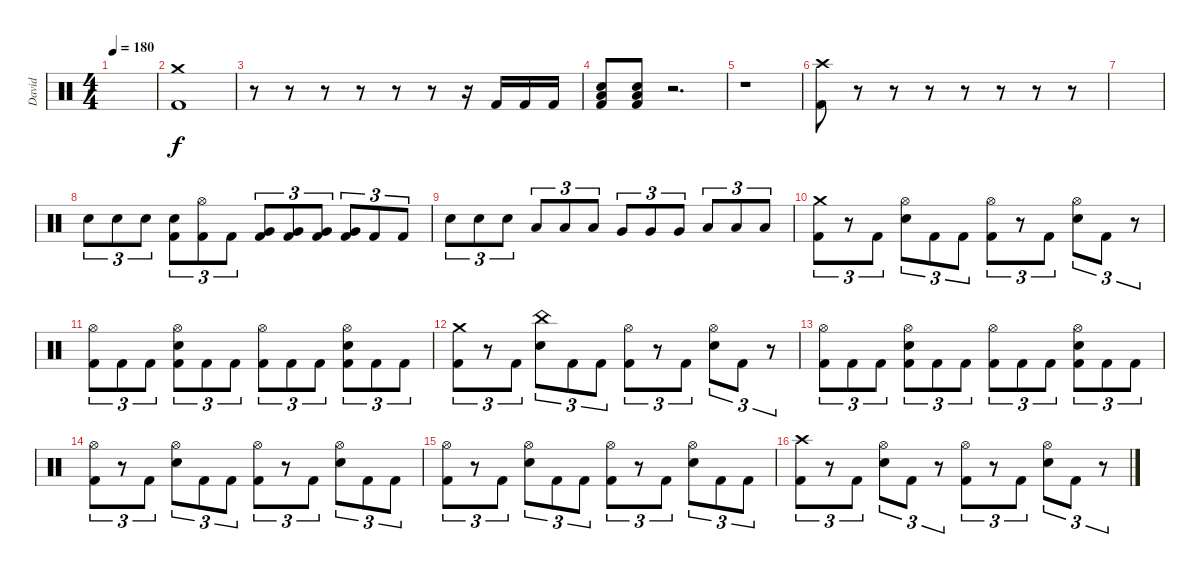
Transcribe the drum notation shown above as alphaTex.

\track ("David" "David") {instrument percussion}
\staff {score}
\articulation defaults
\ts (4 4)
\tempo 180
\clef neutral
\ks c
|
("Crash medium (hit)" "Kick (hit) 2").1 |
r.8 r.8 r.8 r.8 r.8 r.8 r.16 "Kick (hit) 2".16 "Kick (hit) 2".16 "Kick (hit) 2".16 |
("Low Floor Tom (hit)" "Electric Snare (hit)" "Kick (hit) 2").8 ("Low Floor Tom (hit)" "Electric Snare (hit)" "Kick (hit) 2").8 r.2{d} |
r.1 |
("Crash high (hit)" "Kick (hit) 2").8 r.8 r.8 r.8 r.8 r.8 r.8 r.8 |
|
"Electric Snare (hit)".8{tu (3 2)} "Electric Snare (hit)".8{tu (3 2)} "Electric Snare (hit)".8{tu (3 2)} ("Electric Snare (hit)" "Kick (hit) 2").8{tu (3 2)} ("Hi-Hat (open)" "Kick (hit) 2").8{tu (3 2)} "Kick (hit) 2".8{tu (3 2)} ("Very Low Tom (hit)" "Kick (hit) 2").8{tu (3 2)} ("Very Low Tom (hit)" "Kick (hit) 2").8{tu (3 2)} ("Very Low Tom (hit)" "Kick (hit) 2").8{tu (3 2)} ("Very Low Tom (hit)" "Kick (hit) 2").8{tu (3 2)} "Kick (hit) 2".8{tu (3 2)} "Kick (hit) 2".8{tu (3 2)} |
"Electric Snare (hit)".8{tu (3 2)} "Electric Snare (hit)".8{tu (3 2)} "Electric Snare (hit)".8{tu (3 2)} "Low Tom (hit)".8{tu (3 2)} "Low Tom (hit)".8{tu (3 2)} "Low Tom (hit)".8{tu (3 2)} "Very Low Tom (hit)".8{tu (3 2)} "Very Low Tom (hit)".8{tu (3 2)} "Very Low Tom (hit)".8{tu (3 2)} "Low Floor Tom (hit)".8{tu (3 2)} "Low Floor Tom (hit)".8{tu (3 2)} "Low Floor Tom (hit)".8{tu (3 2)} |
("Crash medium (hit)" "Kick (hit) 2").8{tu (3 2)} r.8{tu (3 2)} "Kick (hit) 2".8{tu (3 2)} ("Hi-Hat (open)" "Electric Snare (hit)").8{tu (3 2)} "Kick (hit) 2".8{tu (3 2)} "Kick (hit) 2".8{tu (3 2)} ("Hi-Hat (open)" "Kick (hit) 2").8{tu (3 2)} r.8{tu (3 2)} "Kick (hit) 2".8{tu (3 2)} ("Hi-Hat (open)" "Electric Snare (hit)").8{tu (3 2)} "Kick (hit) 2".8{tu (3 2)} r.8{tu (3 2)} |
("Hi-Hat (open)" "Kick (hit) 2").8{tu (3 2)} "Kick (hit) 2".8{tu (3 2)} "Kick (hit) 2".8{tu (3 2)} ("Hi-Hat (open)" "Electric Snare (hit)" "Kick (hit) 2").8{tu (3 2)} "Kick (hit) 2".8{tu (3 2)} "Kick (hit) 2".8{tu (3 2)} ("Hi-Hat (open)" "Kick (hit) 2").8{tu (3 2)} "Kick (hit) 2".8{tu (3 2)} "Kick (hit) 2".8{tu (3 2)} ("Hi-Hat (open)" "Electric Snare (hit)" "Kick (hit) 2").8{tu (3 2)} "Kick (hit) 2".8{tu (3 2)} "Kick (hit) 2".8{tu (3 2)} |
("Crash medium (hit)" "Kick (hit) 2").8{tu (3 2)} r.8{tu (3 2)} "Kick (hit) 2".8{tu (3 2)} ("China (hit)" "Electric Snare (hit)").8{tu (3 2)} "Kick (hit) 2".8{tu (3 2)} "Kick (hit) 2".8{tu (3 2)} ("Hi-Hat (open)" "Kick (hit) 2").8{tu (3 2)} r.8{tu (3 2)} "Kick (hit) 2".8{tu (3 2)} ("Hi-Hat (open)" "Electric Snare (hit)").8{tu (3 2)} "Kick (hit) 2".8{tu (3 2)} r.8{tu (3 2)} |
("Hi-Hat (open)" "Kick (hit) 2").8{tu (3 2)} "Kick (hit) 2".8{tu (3 2)} "Kick (hit) 2".8{tu (3 2)} ("Hi-Hat (open)" "Electric Snare (hit)" "Kick (hit) 2").8{tu (3 2)} "Kick (hit) 2".8{tu (3 2)} "Kick (hit) 2".8{tu (3 2)} ("Hi-Hat (open)" "Kick (hit) 2").8{tu (3 2)} "Kick (hit) 2".8{tu (3 2)} "Kick (hit) 2".8{tu (3 2)} ("Hi-Hat (open)" "Electric Snare (hit)" "Kick (hit) 2").8{tu (3 2)} "Kick (hit) 2".8{tu (3 2)} "Kick (hit) 2".8{tu (3 2)} |
("Hi-Hat (open)" "Kick (hit) 2").8{tu (3 2)} r.8{tu (3 2)} "Kick (hit) 2".8{tu (3 2)} ("Hi-Hat (open)" "Electric Snare (hit)").8{tu (3 2)} "Kick (hit) 2".8{tu (3 2)} "Kick (hit) 2".8{tu (3 2)} ("Hi-Hat (open)" "Kick (hit) 2").8{tu (3 2)} r.8{tu (3 2)} "Kick (hit) 2".8{tu (3 2)} ("Hi-Hat (open)" "Electric Snare (hit)").8{tu (3 2)} "Kick (hit) 2".8{tu (3 2)} "Kick (hit) 2".8{tu (3 2)} |
("Hi-Hat (open)" "Kick (hit) 2").8{tu (3 2)} r.8{tu (3 2)} "Kick (hit) 2".8{tu (3 2)} ("Hi-Hat (open)" "Electric Snare (hit)").8{tu (3 2)} "Kick (hit) 2".8{tu (3 2)} "Kick (hit) 2".8{tu (3 2)} ("Hi-Hat (open)" "Kick (hit) 2").8{tu (3 2)} r.8{tu (3 2)} "Kick (hit) 2".8{tu (3 2)} ("Hi-Hat (open)" "Electric Snare (hit)").8{tu (3 2)} "Kick (hit) 2".8{tu (3 2)} "Kick (hit) 2".8{tu (3 2)} |
("Crash high (hit)" "Kick (hit) 2").8{tu (3 2)} r.8{tu (3 2)} "Kick (hit) 2".8{tu (3 2)} ("Hi-Hat (open)" "Electric Snare (hit)").8{tu (3 2)} "Kick (hit) 2".8{tu (3 2)} r.8{tu (3 2)} ("Hi-Hat (open)" "Kick (hit) 2").8{tu (3 2)} r.8{tu (3 2)} "Kick (hit) 2".8{tu (3 2)} ("Hi-Hat (open)" "Electric Snare (hit)").8{tu (3 2)} "Kick (hit) 2".8{tu (3 2)} r.8{tu (3 2)}
